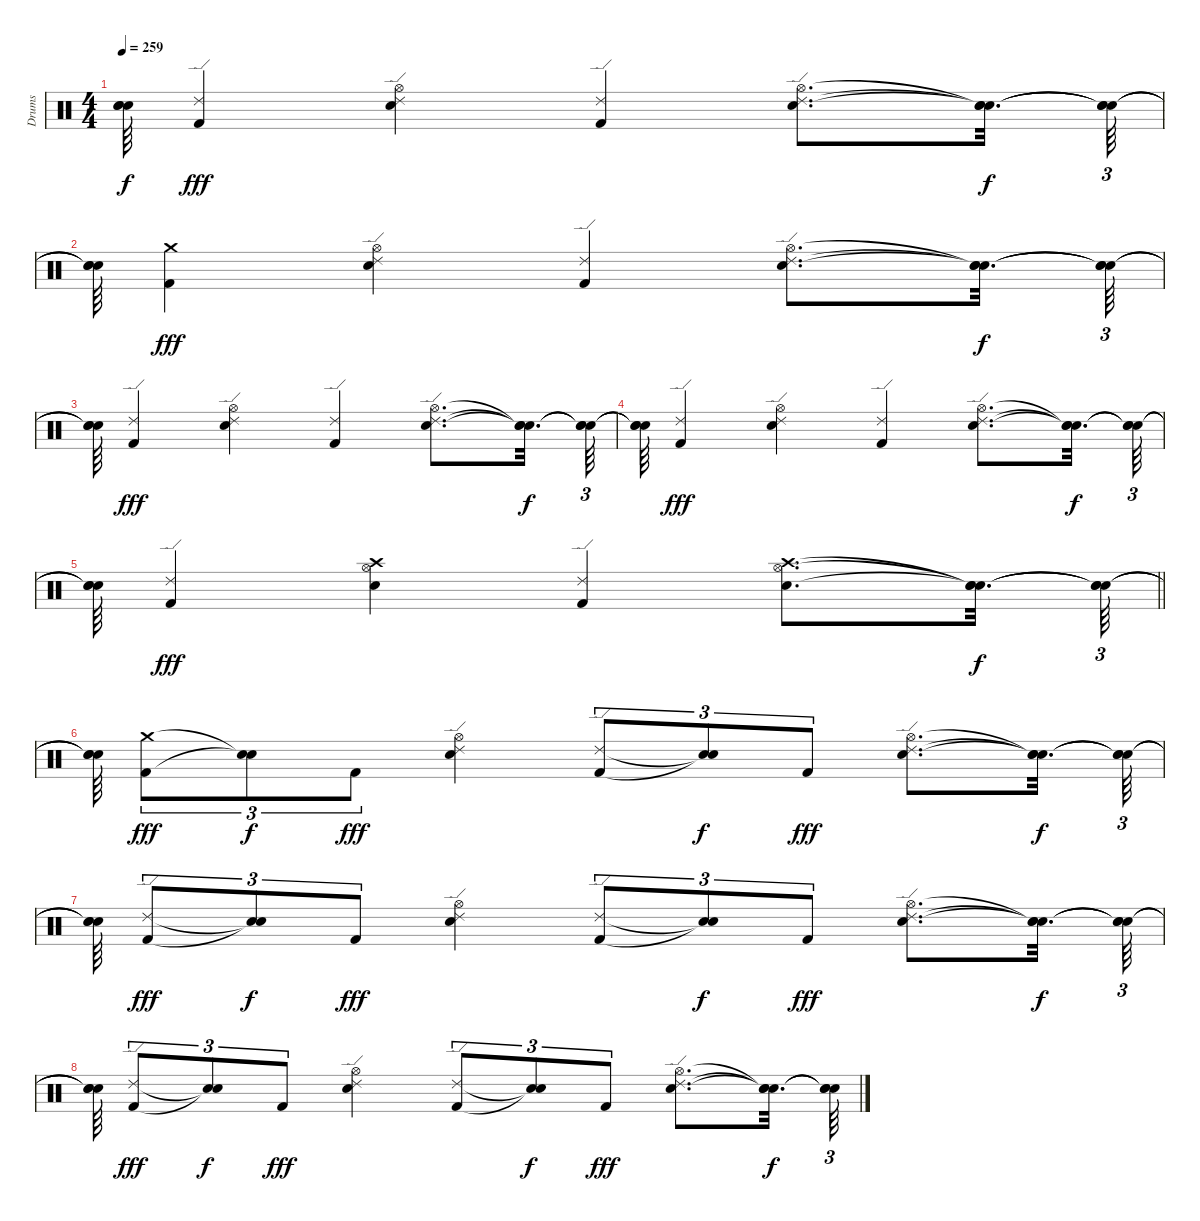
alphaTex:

\track ("Drums" "Drums") {instrument percussion}
\staff {score}
\articulation defaults
\ts (4 4)
\tempo 259
\clef neutral
\ks c
("Snare (hit)"{t} "Snare (hit)"{t} "Snare (hit)"{t}).64{dy f} ("Kick (hit) 2" "Ride (edge) 2").4{dy fff} ("Electric Snare (hit)" "Ride (edge) 2" "Hi-Hat (open)").4 ("Kick (hit) 2" "Ride (edge) 2").4 ("Electric Snare (hit)" "Ride (edge) 2" "Hi-Hat (open)").8{d} ("Snare (hit)"{t} "Snare (hit)"{t} "Snare (hit)"{t}).32{d dy f} ("Snare (hit)"{t} "Snare (hit)"{t} "Snare (hit)"{t}).64{tu (3 2)} |
("Snare (hit)"{t} "Snare (hit)"{t} "Snare (hit)"{t}).64 ("Kick (hit) 2" "Crash medium (hit)").4{dy fff} ("Electric Snare (hit)" "Ride (edge) 2" "Hi-Hat (open)").4 ("Kick (hit) 2" "Ride (edge) 2").4 ("Electric Snare (hit)" "Ride (edge) 2" "Hi-Hat (open)").8{d} ("Snare (hit)"{t} "Snare (hit)"{t} "Snare (hit)"{t}).32{d dy f} ("Snare (hit)"{t} "Snare (hit)"{t} "Snare (hit)"{t}).64{tu (3 2)} |
("Snare (hit)"{t} "Snare (hit)"{t} "Snare (hit)"{t}).64 ("Kick (hit) 2" "Ride (edge) 2").4{dy fff} ("Electric Snare (hit)" "Ride (edge) 2" "Hi-Hat (open)").4 ("Kick (hit) 2" "Ride (edge) 2").4 ("Electric Snare (hit)" "Ride (edge) 2" "Hi-Hat (open)").8{d} ("Snare (hit)"{t} "Snare (hit)"{t} "Snare (hit)"{t}).32{d dy f} ("Snare (hit)"{t} "Snare (hit)"{t} "Snare (hit)"{t}).64{tu (3 2)} |
("Snare (hit)"{t} "Snare (hit)"{t} "Snare (hit)"{t}).64 ("Kick (hit) 2" "Ride (edge) 2").4{dy fff} ("Electric Snare (hit)" "Ride (edge) 2" "Hi-Hat (open)").4 ("Kick (hit) 2" "Ride (edge) 2").4 ("Electric Snare (hit)" "Ride (edge) 2" "Hi-Hat (open)").8{d} ("Snare (hit)"{t} "Snare (hit)"{t} "Snare (hit)"{t}).32{d dy f} ("Snare (hit)"{t} "Snare (hit)"{t} "Snare (hit)"{t}).64{tu (3 2)} |
\barLineRight lightlight
("Snare (hit)"{t} "Snare (hit)"{t} "Snare (hit)"{t}).64 ("Kick (hit) 2" "Ride (edge) 2").4{dy fff} ("Electric Snare (hit)" "Crash high (hit)" "Hi-Hat (open)").4 ("Kick (hit) 2" "Ride (edge) 2").4 ("Electric Snare (hit)" "Crash high (hit)" "Hi-Hat (open)").8{d} ("Snare (hit)"{t} "Snare (hit)"{t} "Snare (hit)"{t}).32{d dy f} ("Snare (hit)"{t} "Snare (hit)"{t} "Snare (hit)"{t}).64{tu (3 2)} |
\section ("" "")
("Snare (hit)"{t} "Snare (hit)"{t} "Snare (hit)"{t}).64 ("Kick (hit) 2" "Crash medium (hit)").8{tu (3 2) dy fff} ("Snare (hit)"{t} "Snare (hit)"{t}).8{tu (3 2) dy f} "Kick (hit) 2".8{tu (3 2) dy fff} ("Electric Snare (hit)" "Ride (edge) 2" "Hi-Hat (open)").4 ("Kick (hit) 2" "Ride (edge) 2").8{tu (3 2)} ("Snare (hit)"{t} "Snare (hit)"{t}).8{tu (3 2) dy f} "Kick (hit) 2".8{tu (3 2) dy fff} ("Electric Snare (hit)" "Ride (edge) 2" "Hi-Hat (open)").8{d} ("Snare (hit)"{t} "Snare (hit)"{t} "Snare (hit)"{t}).32{d dy f} ("Snare (hit)"{t} "Snare (hit)"{t} "Snare (hit)"{t}).64{tu (3 2)} |
("Snare (hit)"{t} "Snare (hit)"{t} "Snare (hit)"{t}).64 ("Kick (hit) 2" "Ride (edge) 2").8{tu (3 2) dy fff} ("Snare (hit)"{t} "Snare (hit)"{t}).8{tu (3 2) dy f} "Kick (hit) 2".8{tu (3 2) dy fff} ("Electric Snare (hit)" "Ride (edge) 2" "Hi-Hat (open)").4 ("Kick (hit) 2" "Ride (edge) 2").8{tu (3 2)} ("Snare (hit)"{t} "Snare (hit)"{t}).8{tu (3 2) dy f} "Kick (hit) 2".8{tu (3 2) dy fff} ("Electric Snare (hit)" "Ride (edge) 2" "Hi-Hat (open)").8{d} ("Snare (hit)"{t} "Snare (hit)"{t} "Snare (hit)"{t}).32{d dy f} ("Snare (hit)"{t} "Snare (hit)"{t} "Snare (hit)"{t}).64{tu (3 2)} |
("Snare (hit)"{t} "Snare (hit)"{t} "Snare (hit)"{t}).64 ("Kick (hit) 2" "Ride (edge) 2").8{tu (3 2) dy fff} ("Snare (hit)"{t} "Snare (hit)"{t}).8{tu (3 2) dy f} "Kick (hit) 2".8{tu (3 2) dy fff} ("Electric Snare (hit)" "Ride (edge) 2" "Hi-Hat (open)").4 ("Kick (hit) 2" "Ride (edge) 2").8{tu (3 2)} ("Snare (hit)"{t} "Snare (hit)"{t}).8{tu (3 2) dy f} "Kick (hit) 2".8{tu (3 2) dy fff} ("Electric Snare (hit)" "Ride (edge) 2" "Hi-Hat (open)").8{d} ("Snare (hit)"{t} "Snare (hit)"{t} "Snare (hit)"{t}).32{d dy f} ("Snare (hit)"{t} "Snare (hit)"{t} "Snare (hit)"{t}).64{tu (3 2)}
